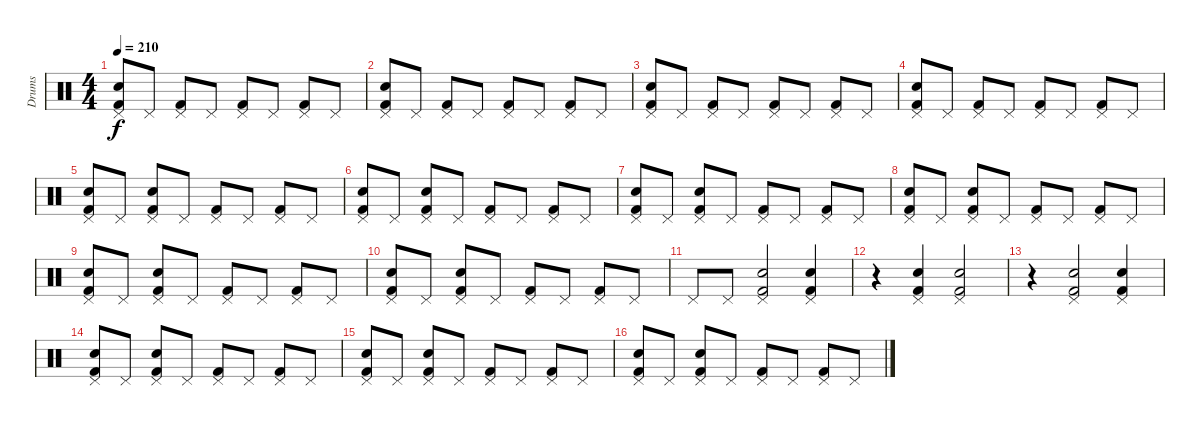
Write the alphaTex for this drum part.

\track ("Drums" "Drums") {instrument percussion}
\staff {score}
\articulation defaults
\ts (4 4)
\tempo 210
\clef neutral
\ks c
("Kick (hit) 2" "Pedal Hi-Hat (hit)" "Snare (hit) 2").8{dy f} "Pedal Hi-Hat (hit)".8 ("Kick (hit) 2" "Pedal Hi-Hat (hit)").8 "Pedal Hi-Hat (hit)".8 ("Kick (hit) 2" "Pedal Hi-Hat (hit)").8 "Pedal Hi-Hat (hit)".8 ("Kick (hit) 2" "Pedal Hi-Hat (hit)").8 "Pedal Hi-Hat (hit)".8 |
("Kick (hit) 2" "Pedal Hi-Hat (hit)" "Snare (hit) 2").8 "Pedal Hi-Hat (hit)".8 ("Kick (hit) 2" "Pedal Hi-Hat (hit)").8 "Pedal Hi-Hat (hit)".8 ("Kick (hit) 2" "Pedal Hi-Hat (hit)").8 "Pedal Hi-Hat (hit)".8 ("Kick (hit) 2" "Pedal Hi-Hat (hit)").8 "Pedal Hi-Hat (hit)".8 |
("Kick (hit) 2" "Pedal Hi-Hat (hit)" "Snare (hit) 2").8 "Pedal Hi-Hat (hit)".8 ("Kick (hit) 2" "Pedal Hi-Hat (hit)").8 "Pedal Hi-Hat (hit)".8 ("Kick (hit) 2" "Pedal Hi-Hat (hit)").8 "Pedal Hi-Hat (hit)".8 ("Kick (hit) 2" "Pedal Hi-Hat (hit)").8 "Pedal Hi-Hat (hit)".8 |
("Kick (hit) 2" "Pedal Hi-Hat (hit)" "Snare (hit) 2").8 "Pedal Hi-Hat (hit)".8 ("Kick (hit) 2" "Pedal Hi-Hat (hit)").8 "Pedal Hi-Hat (hit)".8 ("Kick (hit) 2" "Pedal Hi-Hat (hit)").8 "Pedal Hi-Hat (hit)".8 ("Kick (hit) 2" "Pedal Hi-Hat (hit)").8 "Pedal Hi-Hat (hit)".8 |
("Kick (hit) 2" "Pedal Hi-Hat (hit)" "Snare (hit) 2").8 "Pedal Hi-Hat (hit)".8 ("Kick (hit) 2" "Pedal Hi-Hat (hit)" "Snare (hit) 2").8 "Pedal Hi-Hat (hit)".8 ("Kick (hit) 2" "Pedal Hi-Hat (hit)").8 "Pedal Hi-Hat (hit)".8 ("Kick (hit) 2" "Pedal Hi-Hat (hit)").8 "Pedal Hi-Hat (hit)".8 |
("Kick (hit) 2" "Pedal Hi-Hat (hit)" "Snare (hit) 2").8 "Pedal Hi-Hat (hit)".8 ("Kick (hit) 2" "Pedal Hi-Hat (hit)" "Snare (hit) 2").8 "Pedal Hi-Hat (hit)".8 ("Kick (hit) 2" "Pedal Hi-Hat (hit)").8 "Pedal Hi-Hat (hit)".8 ("Kick (hit) 2" "Pedal Hi-Hat (hit)").8 "Pedal Hi-Hat (hit)".8 |
("Kick (hit) 2" "Pedal Hi-Hat (hit)" "Snare (hit) 2").8 "Pedal Hi-Hat (hit)".8 ("Kick (hit) 2" "Pedal Hi-Hat (hit)" "Snare (hit) 2").8 "Pedal Hi-Hat (hit)".8 ("Kick (hit) 2" "Pedal Hi-Hat (hit)").8 "Pedal Hi-Hat (hit)".8 ("Kick (hit) 2" "Pedal Hi-Hat (hit)").8 "Pedal Hi-Hat (hit)".8 |
("Kick (hit) 2" "Pedal Hi-Hat (hit)" "Snare (hit) 2").8 "Pedal Hi-Hat (hit)".8 ("Kick (hit) 2" "Pedal Hi-Hat (hit)" "Snare (hit) 2").8 "Pedal Hi-Hat (hit)".8 ("Kick (hit) 2" "Pedal Hi-Hat (hit)").8 "Pedal Hi-Hat (hit)".8 ("Kick (hit) 2" "Pedal Hi-Hat (hit)").8 "Pedal Hi-Hat (hit)".8 |
("Kick (hit) 2" "Pedal Hi-Hat (hit)" "Snare (hit) 2").8 "Pedal Hi-Hat (hit)".8 ("Kick (hit) 2" "Pedal Hi-Hat (hit)" "Snare (hit) 2").8 "Pedal Hi-Hat (hit)".8 ("Kick (hit) 2" "Pedal Hi-Hat (hit)").8 "Pedal Hi-Hat (hit)".8 ("Kick (hit) 2" "Pedal Hi-Hat (hit)").8 "Pedal Hi-Hat (hit)".8 |
("Kick (hit) 2" "Pedal Hi-Hat (hit)" "Snare (hit) 2").8 "Pedal Hi-Hat (hit)".8 ("Kick (hit) 2" "Pedal Hi-Hat (hit)" "Snare (hit) 2").8 "Pedal Hi-Hat (hit)".8 ("Kick (hit) 2" "Pedal Hi-Hat (hit)").8 "Pedal Hi-Hat (hit)".8 ("Kick (hit) 2" "Pedal Hi-Hat (hit)").8 "Pedal Hi-Hat (hit)".8 |
"Pedal Hi-Hat (hit)".8 "Pedal Hi-Hat (hit)".8 ("Kick (hit) 2" "Pedal Hi-Hat (hit)" "Snare (hit) 2").2 ("Kick (hit) 2" "Pedal Hi-Hat (hit)" "Snare (hit) 2").4 |
r.4 ("Kick (hit) 2" "Pedal Hi-Hat (hit)" "Snare (hit) 2").4 ("Kick (hit) 2" "Pedal Hi-Hat (hit)" "Snare (hit) 2").2 |
r.4 ("Kick (hit) 2" "Pedal Hi-Hat (hit)" "Snare (hit) 2").2 ("Kick (hit) 2" "Pedal Hi-Hat (hit)" "Snare (hit) 2").4 |
("Kick (hit) 2" "Pedal Hi-Hat (hit)" "Snare (hit) 2").8 "Pedal Hi-Hat (hit)".8 ("Kick (hit) 2" "Pedal Hi-Hat (hit)" "Snare (hit) 2").8 "Pedal Hi-Hat (hit)".8 ("Kick (hit) 2" "Pedal Hi-Hat (hit)").8 "Pedal Hi-Hat (hit)".8 ("Kick (hit) 2" "Pedal Hi-Hat (hit)").8 "Pedal Hi-Hat (hit)".8 |
("Kick (hit) 2" "Pedal Hi-Hat (hit)" "Snare (hit) 2").8 "Pedal Hi-Hat (hit)".8 ("Kick (hit) 2" "Pedal Hi-Hat (hit)" "Snare (hit) 2").8 "Pedal Hi-Hat (hit)".8 ("Kick (hit) 2" "Pedal Hi-Hat (hit)").8 "Pedal Hi-Hat (hit)".8 ("Kick (hit) 2" "Pedal Hi-Hat (hit)").8 "Pedal Hi-Hat (hit)".8 |
("Kick (hit) 2" "Pedal Hi-Hat (hit)" "Snare (hit) 2").8 "Pedal Hi-Hat (hit)".8 ("Kick (hit) 2" "Pedal Hi-Hat (hit)" "Snare (hit) 2").8 "Pedal Hi-Hat (hit)".8 ("Kick (hit) 2" "Pedal Hi-Hat (hit)").8 "Pedal Hi-Hat (hit)".8 ("Kick (hit) 2" "Pedal Hi-Hat (hit)").8 "Pedal Hi-Hat (hit)".8
